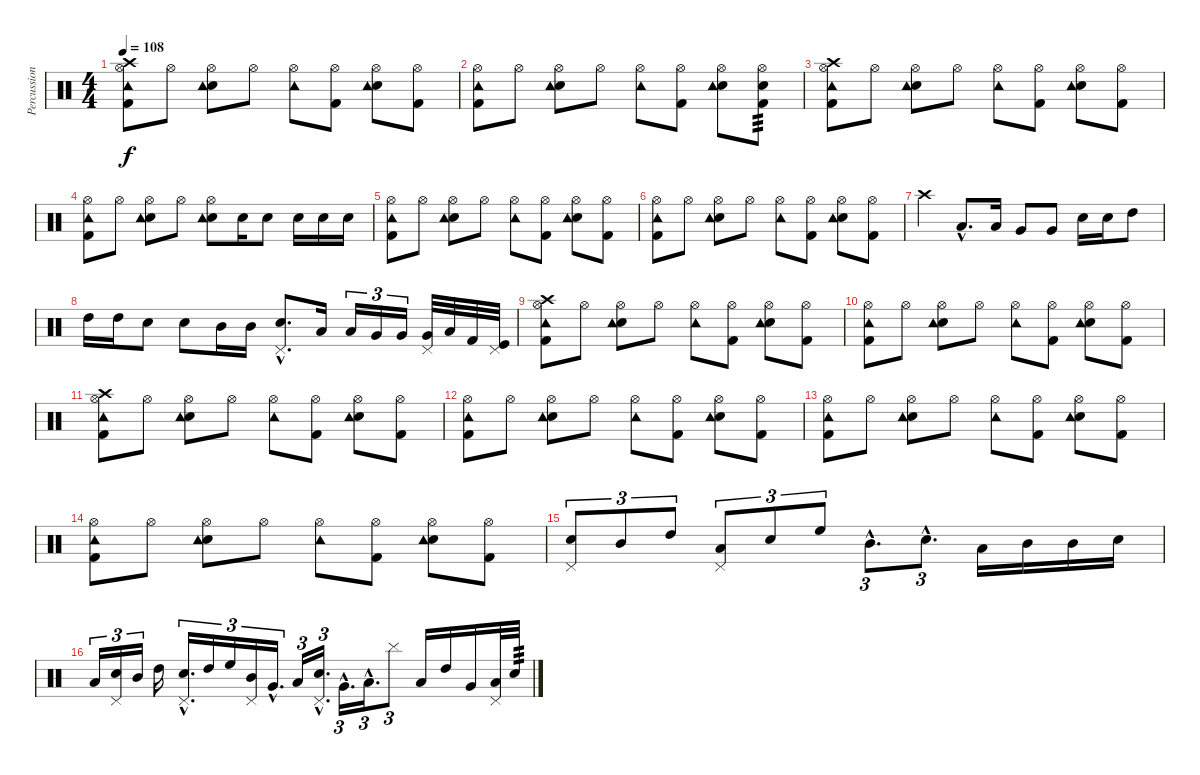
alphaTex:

\track ("Percussion" "Percussion") {instrument percussion}
\staff {score}
\articulation defaults
\ts (4 4)
\tempo 108
\clef neutral
\ks c
("Kick (hit) 2" "Hi-Hat (open)" "Tambourine (hit)" "Crash high (hit)").8{dy f} "Hi-Hat (open)".8 ("Hi-Hat (open)" "Electric Snare (hit)" "Tambourine (hit)").8 "Hi-Hat (open)".8 ("Hi-Hat (open)" "Tambourine (hit)").8 ("Hi-Hat (open)" "Kick (hit) 2").8 ("Hi-Hat (open)" "Electric Snare (hit)" "Tambourine (hit)").8 ("Hi-Hat (open)" "Kick (hit) 2").8 |
("Kick (hit) 2" "Hi-Hat (open)" "Tambourine (hit)").8 "Hi-Hat (open)".8 ("Hi-Hat (open)" "Electric Snare (hit)" "Tambourine (hit)").8 "Hi-Hat (open)".8 ("Hi-Hat (open)" "Tambourine (hit)").8 ("Hi-Hat (open)" "Kick (hit) 2").8 ("Hi-Hat (open)" "Electric Snare (hit)" "Tambourine (hit)").8 ("Hi-Hat (open)" "Kick (hit) 2" "Electric Snare (hit)").8{tp 3} |
("Kick (hit) 2" "Hi-Hat (open)" "Tambourine (hit)" "Crash high (hit)").8 "Hi-Hat (open)".8 ("Hi-Hat (open)" "Electric Snare (hit)" "Tambourine (hit)").8 "Hi-Hat (open)".8 ("Hi-Hat (open)" "Tambourine (hit)").8 ("Hi-Hat (open)" "Kick (hit) 2").8 ("Hi-Hat (open)" "Electric Snare (hit)" "Tambourine (hit)").8 ("Hi-Hat (open)" "Kick (hit) 2").8 |
("Kick (hit) 2" "Hi-Hat (open)" "Tambourine (hit)").8 "Hi-Hat (open)".8 ("Hi-Hat (open)" "Electric Snare (hit)" "Tambourine (hit)").8 "Hi-Hat (open)".8 ("Hi-Hat (open)" "Electric Snare (hit)" "Tambourine (hit)").8 "Electric Snare (hit)".16 "Electric Snare (hit)".8 "Electric Snare (hit)".16 "Electric Snare (hit)".16 "Electric Snare (hit)".16 |
("Kick (hit) 2" "Hi-Hat (open)" "Tambourine (hit)").8 "Hi-Hat (open)".8 ("Hi-Hat (open)" "Electric Snare (hit)" "Tambourine (hit)").8 "Hi-Hat (open)".8 ("Hi-Hat (open)" "Tambourine (hit)").8 ("Hi-Hat (open)" "Kick (hit) 2").8 ("Hi-Hat (open)" "Electric Snare (hit)" "Tambourine (hit)").8 ("Hi-Hat (open)" "Kick (hit) 2").8 |
("Kick (hit) 2" "Hi-Hat (open)" "Tambourine (hit)").8 "Hi-Hat (open)".8 ("Hi-Hat (open)" "Electric Snare (hit)" "Tambourine (hit)").8 "Hi-Hat (open)".8 ("Hi-Hat (open)" "Tambourine (hit)").8 ("Hi-Hat (open)" "Kick (hit) 2").8 ("Hi-Hat (open)" "Electric Snare (hit)" "Tambourine (hit)").8 ("Hi-Hat (open)" "Kick (hit) 2").8 |
"Crash high (hit)".4 "Low Tom (hit)"{hac}.8{d} "Low Tom (hit)".16 "Very Low Tom (hit)".8 "Very Low Tom (hit)".8 "Electric Snare (hit)".16 "Electric Snare (hit)".16 "High Tom (hit)".8 |
"High Tom (hit)".16 "High Tom (hit)".16 "Electric Snare (hit)".8 "Electric Snare (hit)".8 "Mid Tom (hit)".16 "Mid Tom (hit)".16 ("Electric Snare (hit)"{hac} "Pedal Hi-Hat (hit)"{hac}).8{d} "Low Tom (hit)".16 "Low Tom (hit)".16{tu (3 2)} "Very Low Tom (hit)".16{tu (3 2)} "Very Low Tom (hit)".16{tu (3 2)} ("Very Low Tom (hit)" "Pedal Hi-Hat (hit)").32 "Low Floor Tom (hit)".32 "Kick (hit) 2".32 ("Kick (hit)" "Pedal Hi-Hat (hit)").32 |
("Kick (hit) 2" "Hi-Hat (open)" "Tambourine (hit)" "Crash high (hit)").8 "Hi-Hat (open)".8 ("Hi-Hat (open)" "Electric Snare (hit)" "Tambourine (hit)").8 "Hi-Hat (open)".8 ("Hi-Hat (open)" "Tambourine (hit)").8 ("Hi-Hat (open)" "Kick (hit) 2").8 ("Hi-Hat (open)" "Electric Snare (hit)" "Tambourine (hit)").8 ("Hi-Hat (open)" "Kick (hit) 2").8 |
("Kick (hit) 2" "Hi-Hat (open)" "Tambourine (hit)").8 "Hi-Hat (open)".8 ("Hi-Hat (open)" "Electric Snare (hit)" "Tambourine (hit)").8 "Hi-Hat (open)".8 ("Hi-Hat (open)" "Tambourine (hit)").8 ("Hi-Hat (open)" "Kick (hit) 2").8 ("Hi-Hat (open)" "Electric Snare (hit)" "Tambourine (hit)").8 ("Hi-Hat (open)" "Kick (hit) 2").8 |
("Kick (hit) 2" "Hi-Hat (open)" "Tambourine (hit)" "Crash high (hit)").8 "Hi-Hat (open)".8 ("Hi-Hat (open)" "Electric Snare (hit)" "Tambourine (hit)").8 "Hi-Hat (open)".8 ("Hi-Hat (open)" "Tambourine (hit)").8 ("Hi-Hat (open)" "Kick (hit) 2").8 ("Hi-Hat (open)" "Electric Snare (hit)" "Tambourine (hit)").8 ("Hi-Hat (open)" "Kick (hit) 2").8 |
("Kick (hit) 2" "Hi-Hat (open)" "Tambourine (hit)").8 "Hi-Hat (open)".8 ("Hi-Hat (open)" "Electric Snare (hit)" "Tambourine (hit)").8 "Hi-Hat (open)".8 ("Hi-Hat (open)" "Tambourine (hit)").8 ("Hi-Hat (open)" "Kick (hit) 2").8 ("Hi-Hat (open)" "Electric Snare (hit)" "Tambourine (hit)").8 ("Hi-Hat (open)" "Kick (hit) 2").8 |
("Kick (hit) 2" "Hi-Hat (open)" "Tambourine (hit)").8 "Hi-Hat (open)".8 ("Hi-Hat (open)" "Electric Snare (hit)" "Tambourine (hit)").8 "Hi-Hat (open)".8 ("Hi-Hat (open)" "Tambourine (hit)").8 ("Hi-Hat (open)" "Kick (hit) 2").8 ("Hi-Hat (open)" "Electric Snare (hit)" "Tambourine (hit)").8 ("Hi-Hat (open)" "Kick (hit) 2").8 |
("Kick (hit) 2" "Hi-Hat (open)" "Tambourine (hit)").8 "Hi-Hat (open)".8 ("Hi-Hat (open)" "Electric Snare (hit)" "Tambourine (hit)").8 "Hi-Hat (open)".8 ("Hi-Hat (open)" "Tambourine (hit)").8 ("Hi-Hat (open)" "Kick (hit) 2").8 ("Hi-Hat (open)" "Electric Snare (hit)" "Tambourine (hit)").8 ("Hi-Hat (open)" "Kick (hit) 2").8 |
("Electric Snare (hit)" "Pedal Hi-Hat (hit)").8{tu (3 2)} "Mid Tom (hit)".8{tu (3 2)} "High Tom (hit)".8{tu (3 2)} ("Low Tom (hit)" "Pedal Hi-Hat (hit)").8{tu (3 2)} "Electric Snare (hit)".8{tu (3 2)} "High Floor Tom (hit)".8{tu (3 2)} "Mid Tom (hit)"{hac}.8{d tu (3 2)} "Electric Snare (hit)"{hac}.8{d tu (3 2)} "Low Tom (hit)".16 "Mid Tom (hit)".16 "Mid Tom (hit)".16 "Electric Snare (hit)".16 |
"Low Tom (hit)".16{tu (3 2)} ("Electric Snare (hit)" "Pedal Hi-Hat (hit)").16{tu (3 2)} "Mid Tom (hit)".16{tu (3 2)} "High Tom (hit)".16 ("Electric Snare (hit)"{hac} "Pedal Hi-Hat (hit)"{hac}).16{d tu (3 2)} "High Tom (hit)".16{tu (3 2)} "High Floor Tom (hit)".16{tu (3 2)} ("Mid Tom (hit)" "Pedal Hi-Hat (hit)").16{tu (3 2)} "Very Low Tom (hit)"{hac}.16{d tu (3 2)} "Low Tom (hit)".16{tu (3 2)} ("Electric Snare (hit)"{hac} "Pedal Hi-Hat (hit)"{hac}).16{d tu (3 2)} "Very Low Tom (hit)"{hac}.16{d tu (3 2)} "Low Tom (hit)"{hac}.16{d tu (3 2)} "Cymbal (hit)".8{tu (3 2)} "Low Tom (hit)".16 "High Tom (hit)".16 "Very Low Tom (hit)".16 ("Low Tom (hit)" "Pedal Hi-Hat (hit)").32 "Electric Snare (hit)".32{tp 3}
